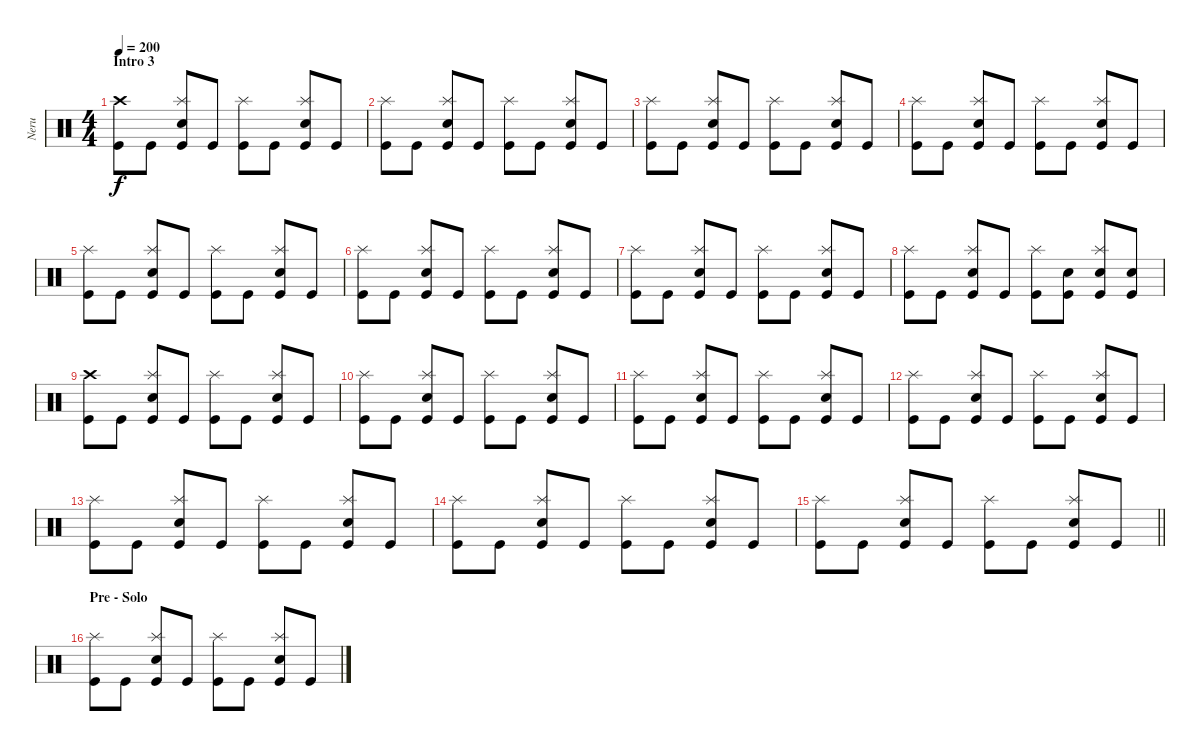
\track ("Neru" "Neru") {instrument percussion}
\staff {score}
\articulation defaults
\ts (4 4)
\section ("" "Intro 3")
\tempo 200
\clef neutral
\ks c
("Crash high (hit)" "Kick (hit)").8{dy f} "Kick (hit)".8 ("Splash (hit)" "Electric Snare (hit)" "Kick (hit)").8 "Kick (hit)".8 ("Splash (hit)" "Kick (hit)").8 "Kick (hit)".8 ("Splash (hit)" "Electric Snare (hit)" "Kick (hit)").8 "Kick (hit)".8 |
("Splash (hit)" "Kick (hit)").8 "Kick (hit)".8 ("Splash (hit)" "Electric Snare (hit)" "Kick (hit)").8 "Kick (hit)".8 ("Splash (hit)" "Kick (hit)").8 "Kick (hit)".8 ("Splash (hit)" "Electric Snare (hit)" "Kick (hit)").8 "Kick (hit)".8 |
("Splash (hit)" "Kick (hit)").8 "Kick (hit)".8 ("Splash (hit)" "Electric Snare (hit)" "Kick (hit)").8 "Kick (hit)".8 ("Splash (hit)" "Kick (hit)").8 "Kick (hit)".8 ("Splash (hit)" "Electric Snare (hit)" "Kick (hit)").8 "Kick (hit)".8 |
("Splash (hit)" "Kick (hit)").8 "Kick (hit)".8 ("Splash (hit)" "Electric Snare (hit)" "Kick (hit)").8 "Kick (hit)".8 ("Splash (hit)" "Kick (hit)").8 "Kick (hit)".8 ("Splash (hit)" "Electric Snare (hit)" "Kick (hit)").8 "Kick (hit)".8 |
("Splash (hit)" "Kick (hit)").8 "Kick (hit)".8 ("Splash (hit)" "Electric Snare (hit)" "Kick (hit)").8 "Kick (hit)".8 ("Splash (hit)" "Kick (hit)").8 "Kick (hit)".8 ("Splash (hit)" "Electric Snare (hit)" "Kick (hit)").8 "Kick (hit)".8 |
("Splash (hit)" "Kick (hit)").8 "Kick (hit)".8 ("Splash (hit)" "Electric Snare (hit)" "Kick (hit)").8 "Kick (hit)".8 ("Splash (hit)" "Kick (hit)").8 "Kick (hit)".8 ("Splash (hit)" "Electric Snare (hit)" "Kick (hit)").8 "Kick (hit)".8 |
("Splash (hit)" "Kick (hit)").8 "Kick (hit)".8 ("Splash (hit)" "Electric Snare (hit)" "Kick (hit)").8 "Kick (hit)".8 ("Splash (hit)" "Kick (hit)").8 "Kick (hit)".8 ("Splash (hit)" "Electric Snare (hit)" "Kick (hit)").8 "Kick (hit)".8 |
("Splash (hit)" "Kick (hit)").8 "Kick (hit)".8 ("Splash (hit)" "Electric Snare (hit)" "Kick (hit)").8 "Kick (hit)".8 ("Splash (hit)" "Kick (hit)").8 ("Electric Snare (hit)" "Kick (hit)").8 ("Splash (hit)" "Electric Snare (hit)" "Kick (hit)").8 ("Electric Snare (hit)" "Kick (hit)").8 |
("Crash high (hit)" "Kick (hit)").8 "Kick (hit)".8 ("Splash (hit)" "Electric Snare (hit)" "Kick (hit)").8 "Kick (hit)".8 ("Splash (hit)" "Kick (hit)").8 "Kick (hit)".8 ("Splash (hit)" "Electric Snare (hit)" "Kick (hit)").8 "Kick (hit)".8 |
("Splash (hit)" "Kick (hit)").8 "Kick (hit)".8 ("Splash (hit)" "Electric Snare (hit)" "Kick (hit)").8 "Kick (hit)".8 ("Splash (hit)" "Kick (hit)").8 "Kick (hit)".8 ("Splash (hit)" "Electric Snare (hit)" "Kick (hit)").8 "Kick (hit)".8 |
("Splash (hit)" "Kick (hit)").8 "Kick (hit)".8 ("Splash (hit)" "Electric Snare (hit)" "Kick (hit)").8 "Kick (hit)".8 ("Splash (hit)" "Kick (hit)").8 "Kick (hit)".8 ("Splash (hit)" "Electric Snare (hit)" "Kick (hit)").8 "Kick (hit)".8 |
("Splash (hit)" "Kick (hit)").8 "Kick (hit)".8 ("Splash (hit)" "Electric Snare (hit)" "Kick (hit)").8 "Kick (hit)".8 ("Splash (hit)" "Kick (hit)").8 "Kick (hit)".8 ("Splash (hit)" "Electric Snare (hit)" "Kick (hit)").8 "Kick (hit)".8 |
("Splash (hit)" "Kick (hit)").8 "Kick (hit)".8 ("Splash (hit)" "Electric Snare (hit)" "Kick (hit)").8 "Kick (hit)".8 ("Splash (hit)" "Kick (hit)").8 "Kick (hit)".8 ("Splash (hit)" "Electric Snare (hit)" "Kick (hit)").8 "Kick (hit)".8 |
("Splash (hit)" "Kick (hit)").8 "Kick (hit)".8 ("Splash (hit)" "Electric Snare (hit)" "Kick (hit)").8 "Kick (hit)".8 ("Splash (hit)" "Kick (hit)").8 "Kick (hit)".8 ("Splash (hit)" "Electric Snare (hit)" "Kick (hit)").8 "Kick (hit)".8 |
\barLineRight lightlight
("Splash (hit)" "Kick (hit)").8 "Kick (hit)".8 ("Splash (hit)" "Electric Snare (hit)" "Kick (hit)").8 "Kick (hit)".8 ("Splash (hit)" "Kick (hit)").8 "Kick (hit)".8 ("Splash (hit)" "Electric Snare (hit)" "Kick (hit)").8 "Kick (hit)".8 |
\section ("" "Pre - Solo")
("Splash (hit)" "Kick (hit)").8 "Kick (hit)".8 ("Splash (hit)" "Electric Snare (hit)" "Kick (hit)").8 "Kick (hit)".8 ("Splash (hit)" "Kick (hit)").8 "Kick (hit)".8 ("Splash (hit)" "Electric Snare (hit)" "Kick (hit)").8 "Kick (hit)".8
